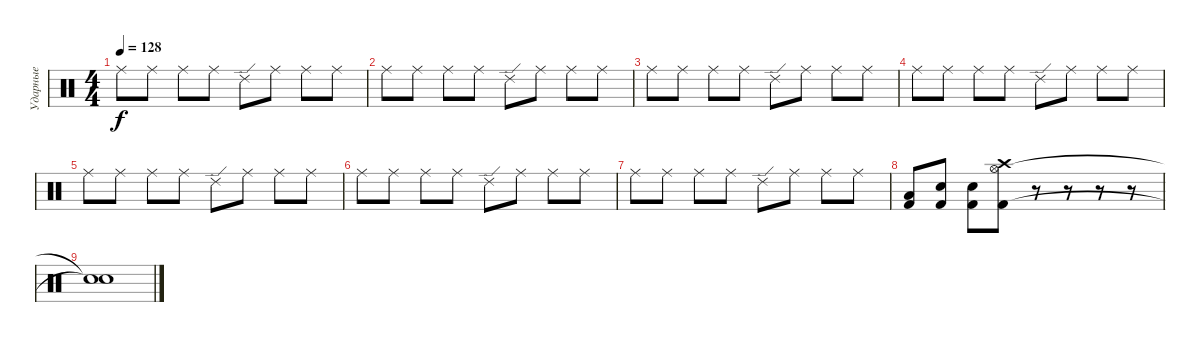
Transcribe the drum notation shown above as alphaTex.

\track ("Ударные" "Ударные") {instrument percussion}
\staff {score}
\articulation defaults
\ts (4 4)
\tempo 128
\clef neutral
\ks c "Ride (middle)".8{dy f} "Ride (middle)".8 "Ride (middle)".8 "Ride (middle)".8 "Ride (edge) 2".8 "Ride (middle)".8 "Ride (middle)".8 "Ride (middle)".8
|
"Ride (middle)".8 "Ride (middle)".8 "Ride (middle)".8 "Ride (middle)".8 "Ride (edge) 2".8 "Ride (middle)".8 "Ride (middle)".8 "Ride (middle)".8 |
"Ride (middle)".8 "Ride (middle)".8 "Ride (middle)".8 "Ride (middle)".8 "Ride (edge) 2".8 "Ride (middle)".8 "Ride (middle)".8 "Ride (middle)".8 |
"Ride (middle)".8 "Ride (middle)".8 "Ride (middle)".8 "Ride (middle)".8 "Ride (edge) 2".8 "Ride (middle)".8 "Ride (middle)".8 "Ride (middle)".8 |
"Ride (middle)".8 "Ride (middle)".8 "Ride (middle)".8 "Ride (middle)".8 "Ride (edge) 2".8 "Ride (middle)".8 "Ride (middle)".8 "Ride (middle)".8 |
"Ride (middle)".8 "Ride (middle)".8 "Ride (middle)".8 "Ride (middle)".8 "Ride (edge) 2".8 "Ride (middle)".8 "Ride (middle)".8 "Ride (middle)".8 |
"Ride (middle)".8 "Ride (middle)".8 "Ride (middle)".8 "Ride (middle)".8 "Ride (edge) 2".8 "Ride (middle)".8 "Ride (middle)".8 "Ride (middle)".8 |
("Kick (hit) 2" "Low Floor Tom (hit)").8 ("Kick (hit) 2" "Snare (hit) 2").8 ("Kick (hit) 2" "Snare (hit) 2").8 ("Kick (hit) 2" "Hi-Hat (open)" "Crash high (hit)").8 r.8 r.8 r.8 r.8 |
("Snare (hit)"{t} "Snare (hit)"{t}).1
